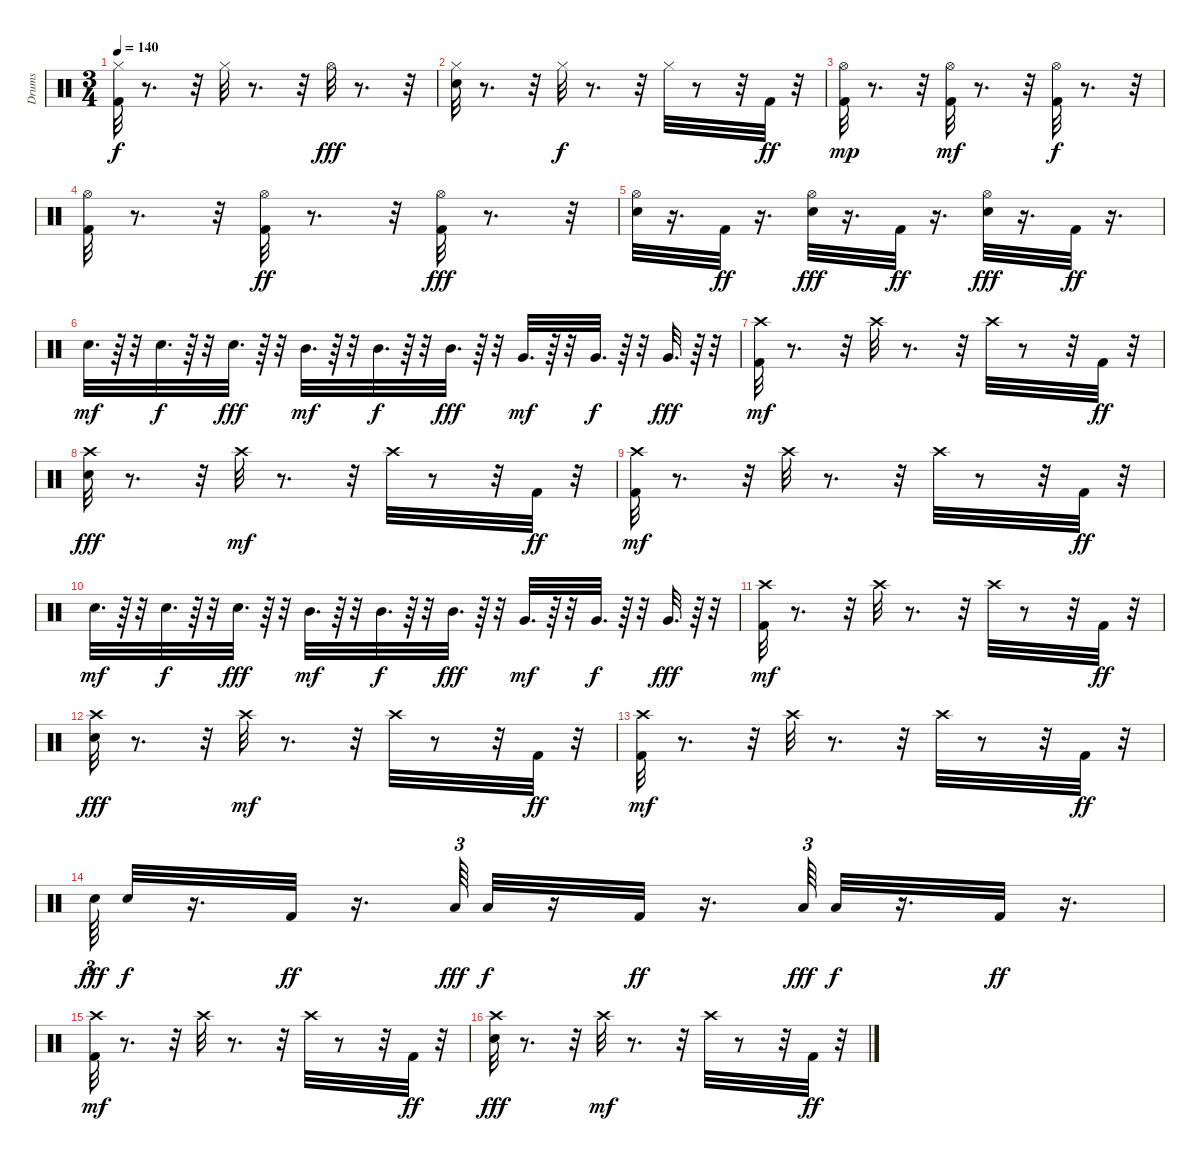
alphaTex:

\track ("Drums" "Drums") {instrument percussion}
\staff {score}
\articulation defaults
\ts (3 4)
\tempo 140
\clef neutral
\ks c
("Hi-Hat (closed)" "Kick (hit) 2").32{dy f} r.8{d} r.32 "Hi-Hat (closed)".32 r.8{d} r.32 "Hi-Hat (open)".32{dy fff} r.8{d} r.32 |
("Snare (hit) 2" "Hi-Hat (closed)").32 r.8{d} r.32 "Hi-Hat (closed)".32{dy f} r.8{d} r.32 "Hi-Hat (closed)".32 r.8 r.32 "Kick (hit) 2".32{dy ff} r.32 |
("Hi-Hat (open)" "Kick (hit) 2").32{dy mp} r.8{d} r.32 ("Hi-Hat (open)" "Kick (hit) 2").32{dy mf} r.8{d} r.32 ("Hi-Hat (open)" "Kick (hit) 2").32{dy f} r.8{d} r.32 |
("Hi-Hat (open)" "Kick (hit) 2").32 r.8{d} r.32 ("Hi-Hat (open)" "Kick (hit) 2").32{dy ff} r.8{d} r.32 ("Hi-Hat (open)" "Kick (hit) 2").32{dy fff} r.8{d} r.32 |
("Snare (hit) 2" "Hi-Hat (open)").32 r.16{d} "Kick (hit) 2".32{dy ff} r.16{d} ("Snare (hit) 2" "Hi-Hat (open)").32{dy fff} r.16{d} "Kick (hit) 2".32{dy ff} r.16{d} ("Snare (hit) 2" "Hi-Hat (open)").32{dy fff} r.16{d} "Kick (hit) 2".32{dy ff} r.16{d} |
"Snare (hit) 2".32{d dy mf} r.64 r.32 "Snare (hit) 2".32{d dy f} r.64 r.32 "Snare (hit) 2".32{d dy fff} r.64 r.32 "Mid Tom (hit)".32{d dy mf} r.64 r.32 "Mid Tom (hit)".32{d dy f} r.64 r.32 "Mid Tom (hit)".32{d dy fff} r.64 r.32 "Very Low Tom (hit)".32{d dy mf} r.64 r.32 "Very Low Tom (hit)".32{d dy f} r.64 r.32 "Very Low Tom (hit)".32{d dy fff} r.64 r.32 |
("Kick (hit) 2" "Crash high (hit)").32{dy mf} r.8{d} r.32 "Crash high (hit)".32 r.8{d} r.32 "Crash high (hit)".32 r.8 r.32 "Kick (hit) 2".32{dy ff} r.32 |
("Snare (hit) 2" "Crash high (hit)").32{dy fff} r.8{d} r.32 "Crash high (hit)".32{dy mf} r.8{d} r.32 "Crash high (hit)".32 r.8 r.32 "Kick (hit) 2".32{dy ff} r.32 |
("Kick (hit) 2" "Crash high (hit)").32{dy mf} r.8{d} r.32 "Crash high (hit)".32 r.8{d} r.32 "Crash high (hit)".32 r.8 r.32 "Kick (hit) 2".32{dy ff} r.32 |
"Snare (hit) 2".32{d dy mf} r.64 r.32 "Snare (hit) 2".32{d dy f} r.64 r.32 "Snare (hit) 2".32{d dy fff} r.64 r.32 "Mid Tom (hit)".32{d dy mf} r.64 r.32 "Mid Tom (hit)".32{d dy f} r.64 r.32 "Mid Tom (hit)".32{d dy fff} r.64 r.32 "Very Low Tom (hit)".32{d dy mf} r.64 r.32 "Very Low Tom (hit)".32{d dy f} r.64 r.32 "Very Low Tom (hit)".32{d dy fff} r.64 r.32 |
("Kick (hit) 2" "Crash high (hit)").32{dy mf} r.8{d} r.32 "Crash high (hit)".32 r.8{d} r.32 "Crash high (hit)".32 r.8 r.32 "Kick (hit) 2".32{dy ff} r.32 |
("Snare (hit) 2" "Crash high (hit)").32{dy fff} r.8{d} r.32 "Crash high (hit)".32{dy mf} r.8{d} r.32 "Crash high (hit)".32 r.8 r.32 "Kick (hit) 2".32{dy ff} r.32 |
("Kick (hit) 2" "Crash high (hit)").32{dy mf} r.8{d} r.32 "Crash high (hit)".32 r.8{d} r.32 "Crash high (hit)".32 r.8 r.32 "Kick (hit) 2".32{dy ff} r.32 |
"Snare (hit) 2".64{tu (3 2) dy fff} "Snare (hit) 2".32{dy f} r.16{d} "Kick (hit) 2".32{dy ff} r.16{d} "Low Tom (hit)".64{tu (3 2) dy fff} "Low Tom (hit)".32{dy f} r.16 "Kick (hit) 2".32{dy ff} r.16{d} "Low Floor Tom (hit)".64{tu (3 2) dy fff} "Low Floor Tom (hit)".32{dy f} r.16{d} "Kick (hit) 2".32{dy ff} r.16{d} |
("Kick (hit) 2" "Crash high (hit)").32{dy mf} r.8{d} r.32 "Crash high (hit)".32 r.8{d} r.32 "Crash high (hit)".32 r.8 r.32 "Kick (hit) 2".32{dy ff} r.32 |
("Snare (hit) 2" "Crash high (hit)").32{dy fff} r.8{d} r.32 "Crash high (hit)".32{dy mf} r.8{d} r.32 "Crash high (hit)".32 r.8 r.32 "Kick (hit) 2".32{dy ff} r.32
